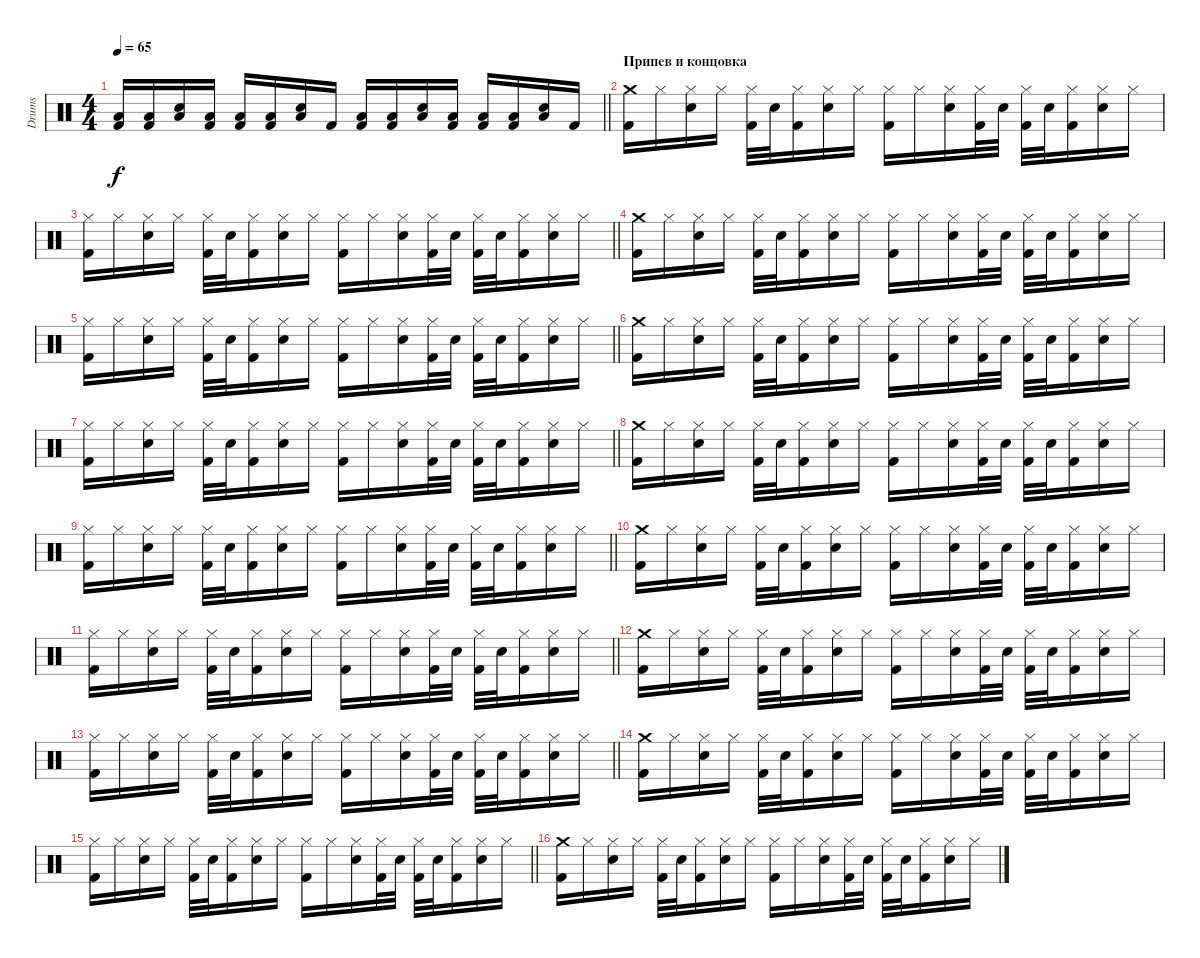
\track ("Drums" "Drums") {instrument percussion}
\staff {score}
\articulation defaults
\ts (4 4)
\tempo 65
\clef neutral
\barLineRight lightlight
\ks c
("Low Tom (hit)" "Kick (hit) 2").16{dy f} ("Low Tom (hit)" "Kick (hit) 2").16 ("Low Tom (hit)" "Snare (hit) 2").16 ("Low Tom (hit)" "Kick (hit) 2").16 ("Low Tom (hit)" "Kick (hit) 2").16 ("Low Tom (hit)" "Kick (hit) 2").16 ("Low Tom (hit)" "Snare (hit) 2").16 "Kick (hit) 2".16 ("Low Tom (hit)" "Kick (hit) 2").16 ("Low Tom (hit)" "Kick (hit) 2").16 ("Low Tom (hit)" "Snare (hit) 2").16 ("Low Tom (hit)" "Kick (hit) 2").16 ("Low Tom (hit)" "Kick (hit) 2").16 ("Low Tom (hit)" "Kick (hit) 2").16 ("Low Tom (hit)" "Snare (hit) 2").16 "Kick (hit) 2".16 |
\section ("" "Припев и концовка")
("Crash medium (hit)" "Kick (hit) 2").16 "Hi-Hat (closed)".16 ("Hi-Hat (closed)" "Snare (hit) 2").16 "Hi-Hat (closed)".16 ("Hi-Hat (closed)" "Kick (hit) 2").32 "Snare (hit) 2".32 ("Hi-Hat (closed)" "Kick (hit) 2").16 ("Hi-Hat (closed)" "Snare (hit) 2").16 "Hi-Hat (closed)".16 ("Hi-Hat (closed)" "Kick (hit) 2").16 "Hi-Hat (closed)".16 ("Hi-Hat (closed)" "Snare (hit) 2").16 ("Hi-Hat (closed)" "Kick (hit) 2").32 "Snare (hit) 2".32 ("Hi-Hat (closed)" "Kick (hit) 2").32 "Snare (hit) 2".32 ("Hi-Hat (closed)" "Kick (hit) 2").16 ("Hi-Hat (closed)" "Snare (hit) 2").16 "Hi-Hat (closed)".16 |
\barLineRight lightlight
("Hi-Hat (closed)" "Kick (hit) 2").16 "Hi-Hat (closed)".16 ("Hi-Hat (closed)" "Snare (hit) 2").16 "Hi-Hat (closed)".16 ("Hi-Hat (closed)" "Kick (hit) 2").32 "Snare (hit) 2".32 ("Hi-Hat (closed)" "Kick (hit) 2").16 ("Hi-Hat (closed)" "Snare (hit) 2").16 "Hi-Hat (closed)".16 ("Hi-Hat (closed)" "Kick (hit) 2").16 "Hi-Hat (closed)".16 ("Hi-Hat (closed)" "Snare (hit) 2").16 ("Hi-Hat (closed)" "Kick (hit) 2").32 "Snare (hit) 2".32 ("Hi-Hat (closed)" "Kick (hit) 2").32 "Snare (hit) 2".32 ("Hi-Hat (closed)" "Kick (hit) 2").16 ("Hi-Hat (closed)" "Snare (hit) 2").16 "Hi-Hat (closed)".16 |
("Crash medium (hit)" "Kick (hit) 2").16 "Hi-Hat (closed)".16 ("Hi-Hat (closed)" "Snare (hit) 2").16 "Hi-Hat (closed)".16 ("Hi-Hat (closed)" "Kick (hit) 2").32 "Snare (hit) 2".32 ("Hi-Hat (closed)" "Kick (hit) 2").16 ("Hi-Hat (closed)" "Snare (hit) 2").16 "Hi-Hat (closed)".16 ("Hi-Hat (closed)" "Kick (hit) 2").16 "Hi-Hat (closed)".16 ("Hi-Hat (closed)" "Snare (hit) 2").16 ("Hi-Hat (closed)" "Kick (hit) 2").32 "Snare (hit) 2".32 ("Hi-Hat (closed)" "Kick (hit) 2").32 "Snare (hit) 2".32 ("Hi-Hat (closed)" "Kick (hit) 2").16 ("Hi-Hat (closed)" "Snare (hit) 2").16 "Hi-Hat (closed)".16 |
\barLineRight lightlight
("Hi-Hat (closed)" "Kick (hit) 2").16 "Hi-Hat (closed)".16 ("Hi-Hat (closed)" "Snare (hit) 2").16 "Hi-Hat (closed)".16 ("Hi-Hat (closed)" "Kick (hit) 2").32 "Snare (hit) 2".32 ("Hi-Hat (closed)" "Kick (hit) 2").16 ("Hi-Hat (closed)" "Snare (hit) 2").16 "Hi-Hat (closed)".16 ("Hi-Hat (closed)" "Kick (hit) 2").16 "Hi-Hat (closed)".16 ("Hi-Hat (closed)" "Snare (hit) 2").16 ("Hi-Hat (closed)" "Kick (hit) 2").32 "Snare (hit) 2".32 ("Hi-Hat (closed)" "Kick (hit) 2").32 "Snare (hit) 2".32 ("Hi-Hat (closed)" "Kick (hit) 2").16 ("Hi-Hat (closed)" "Snare (hit) 2").16 "Hi-Hat (closed)".16 |
("Crash medium (hit)" "Kick (hit) 2").16 "Hi-Hat (closed)".16 ("Hi-Hat (closed)" "Snare (hit) 2").16 "Hi-Hat (closed)".16 ("Hi-Hat (closed)" "Kick (hit) 2").32 "Snare (hit) 2".32 ("Hi-Hat (closed)" "Kick (hit) 2").16 ("Hi-Hat (closed)" "Snare (hit) 2").16 "Hi-Hat (closed)".16 ("Hi-Hat (closed)" "Kick (hit) 2").16 "Hi-Hat (closed)".16 ("Hi-Hat (closed)" "Snare (hit) 2").16 ("Hi-Hat (closed)" "Kick (hit) 2").32 "Snare (hit) 2".32 ("Hi-Hat (closed)" "Kick (hit) 2").32 "Snare (hit) 2".32 ("Hi-Hat (closed)" "Kick (hit) 2").16 ("Hi-Hat (closed)" "Snare (hit) 2").16 "Hi-Hat (closed)".16 |
\barLineRight lightlight
("Hi-Hat (closed)" "Kick (hit) 2").16 "Hi-Hat (closed)".16 ("Hi-Hat (closed)" "Snare (hit) 2").16 "Hi-Hat (closed)".16 ("Hi-Hat (closed)" "Kick (hit) 2").32 "Snare (hit) 2".32 ("Hi-Hat (closed)" "Kick (hit) 2").16 ("Hi-Hat (closed)" "Snare (hit) 2").16 "Hi-Hat (closed)".16 ("Hi-Hat (closed)" "Kick (hit) 2").16 "Hi-Hat (closed)".16 ("Hi-Hat (closed)" "Snare (hit) 2").16 ("Hi-Hat (closed)" "Kick (hit) 2").32 "Snare (hit) 2".32 ("Hi-Hat (closed)" "Kick (hit) 2").32 "Snare (hit) 2".32 ("Hi-Hat (closed)" "Kick (hit) 2").16 ("Hi-Hat (closed)" "Snare (hit) 2").16 "Hi-Hat (closed)".16 |
("Crash medium (hit)" "Kick (hit) 2").16 "Hi-Hat (closed)".16 ("Hi-Hat (closed)" "Snare (hit) 2").16 "Hi-Hat (closed)".16 ("Hi-Hat (closed)" "Kick (hit) 2").32 "Snare (hit) 2".32 ("Hi-Hat (closed)" "Kick (hit) 2").16 ("Hi-Hat (closed)" "Snare (hit) 2").16 "Hi-Hat (closed)".16 ("Hi-Hat (closed)" "Kick (hit) 2").16 "Hi-Hat (closed)".16 ("Hi-Hat (closed)" "Snare (hit) 2").16 ("Hi-Hat (closed)" "Kick (hit) 2").32 "Snare (hit) 2".32 ("Hi-Hat (closed)" "Kick (hit) 2").32 "Snare (hit) 2".32 ("Hi-Hat (closed)" "Kick (hit) 2").16 ("Hi-Hat (closed)" "Snare (hit) 2").16 "Hi-Hat (closed)".16 |
\barLineRight lightlight
("Hi-Hat (closed)" "Kick (hit) 2").16 "Hi-Hat (closed)".16 ("Hi-Hat (closed)" "Snare (hit) 2").16 "Hi-Hat (closed)".16 ("Hi-Hat (closed)" "Kick (hit) 2").32 "Snare (hit) 2".32 ("Hi-Hat (closed)" "Kick (hit) 2").16 ("Hi-Hat (closed)" "Snare (hit) 2").16 "Hi-Hat (closed)".16 ("Hi-Hat (closed)" "Kick (hit) 2").16 "Hi-Hat (closed)".16 ("Hi-Hat (closed)" "Snare (hit) 2").16 ("Hi-Hat (closed)" "Kick (hit) 2").32 "Snare (hit) 2".32 ("Hi-Hat (closed)" "Kick (hit) 2").32 "Snare (hit) 2".32 ("Hi-Hat (closed)" "Kick (hit) 2").16 ("Hi-Hat (closed)" "Snare (hit) 2").16 "Hi-Hat (closed)".16 |
("Crash medium (hit)" "Kick (hit) 2").16 "Hi-Hat (closed)".16 ("Hi-Hat (closed)" "Snare (hit) 2").16 "Hi-Hat (closed)".16 ("Hi-Hat (closed)" "Kick (hit) 2").32 "Snare (hit) 2".32 ("Hi-Hat (closed)" "Kick (hit) 2").16 ("Hi-Hat (closed)" "Snare (hit) 2").16 "Hi-Hat (closed)".16 ("Hi-Hat (closed)" "Kick (hit) 2").16 "Hi-Hat (closed)".16 ("Hi-Hat (closed)" "Snare (hit) 2").16 ("Hi-Hat (closed)" "Kick (hit) 2").32 "Snare (hit) 2".32 ("Hi-Hat (closed)" "Kick (hit) 2").32 "Snare (hit) 2".32 ("Hi-Hat (closed)" "Kick (hit) 2").16 ("Hi-Hat (closed)" "Snare (hit) 2").16 "Hi-Hat (closed)".16 |
\barLineRight lightlight
("Hi-Hat (closed)" "Kick (hit) 2").16 "Hi-Hat (closed)".16 ("Hi-Hat (closed)" "Snare (hit) 2").16 "Hi-Hat (closed)".16 ("Hi-Hat (closed)" "Kick (hit) 2").32 "Snare (hit) 2".32 ("Hi-Hat (closed)" "Kick (hit) 2").16 ("Hi-Hat (closed)" "Snare (hit) 2").16 "Hi-Hat (closed)".16 ("Hi-Hat (closed)" "Kick (hit) 2").16 "Hi-Hat (closed)".16 ("Hi-Hat (closed)" "Snare (hit) 2").16 ("Hi-Hat (closed)" "Kick (hit) 2").32 "Snare (hit) 2".32 ("Hi-Hat (closed)" "Kick (hit) 2").32 "Snare (hit) 2".32 ("Hi-Hat (closed)" "Kick (hit) 2").16 ("Hi-Hat (closed)" "Snare (hit) 2").16 "Hi-Hat (closed)".16 |
("Crash medium (hit)" "Kick (hit) 2").16 "Hi-Hat (closed)".16 ("Hi-Hat (closed)" "Snare (hit) 2").16 "Hi-Hat (closed)".16 ("Hi-Hat (closed)" "Kick (hit) 2").32 "Snare (hit) 2".32 ("Hi-Hat (closed)" "Kick (hit) 2").16 ("Hi-Hat (closed)" "Snare (hit) 2").16 "Hi-Hat (closed)".16 ("Hi-Hat (closed)" "Kick (hit) 2").16 "Hi-Hat (closed)".16 ("Hi-Hat (closed)" "Snare (hit) 2").16 ("Hi-Hat (closed)" "Kick (hit) 2").32 "Snare (hit) 2".32 ("Hi-Hat (closed)" "Kick (hit) 2").32 "Snare (hit) 2".32 ("Hi-Hat (closed)" "Kick (hit) 2").16 ("Hi-Hat (closed)" "Snare (hit) 2").16 "Hi-Hat (closed)".16 |
\barLineRight lightlight
("Hi-Hat (closed)" "Kick (hit) 2").16 "Hi-Hat (closed)".16 ("Hi-Hat (closed)" "Snare (hit) 2").16 "Hi-Hat (closed)".16 ("Hi-Hat (closed)" "Kick (hit) 2").32 "Snare (hit) 2".32 ("Hi-Hat (closed)" "Kick (hit) 2").16 ("Hi-Hat (closed)" "Snare (hit) 2").16 "Hi-Hat (closed)".16 ("Hi-Hat (closed)" "Kick (hit) 2").16 "Hi-Hat (closed)".16 ("Hi-Hat (closed)" "Snare (hit) 2").16 ("Hi-Hat (closed)" "Kick (hit) 2").32 "Snare (hit) 2".32 ("Hi-Hat (closed)" "Kick (hit) 2").32 "Snare (hit) 2".32 ("Hi-Hat (closed)" "Kick (hit) 2").16 ("Hi-Hat (closed)" "Snare (hit) 2").16 "Hi-Hat (closed)".16 |
("Crash medium (hit)" "Kick (hit) 2").16 "Hi-Hat (closed)".16 ("Hi-Hat (closed)" "Snare (hit) 2").16 "Hi-Hat (closed)".16 ("Hi-Hat (closed)" "Kick (hit) 2").32 "Snare (hit) 2".32 ("Hi-Hat (closed)" "Kick (hit) 2").16 ("Hi-Hat (closed)" "Snare (hit) 2").16 "Hi-Hat (closed)".16 ("Hi-Hat (closed)" "Kick (hit) 2").16 "Hi-Hat (closed)".16 ("Hi-Hat (closed)" "Snare (hit) 2").16 ("Hi-Hat (closed)" "Kick (hit) 2").32 "Snare (hit) 2".32 ("Hi-Hat (closed)" "Kick (hit) 2").32 "Snare (hit) 2".32 ("Hi-Hat (closed)" "Kick (hit) 2").16 ("Hi-Hat (closed)" "Snare (hit) 2").16 "Hi-Hat (closed)".16 |
\barLineRight lightlight
("Hi-Hat (closed)" "Kick (hit) 2").16 "Hi-Hat (closed)".16 ("Hi-Hat (closed)" "Snare (hit) 2").16 "Hi-Hat (closed)".16 ("Hi-Hat (closed)" "Kick (hit) 2").32 "Snare (hit) 2".32 ("Hi-Hat (closed)" "Kick (hit) 2").16 ("Hi-Hat (closed)" "Snare (hit) 2").16 "Hi-Hat (closed)".16 ("Hi-Hat (closed)" "Kick (hit) 2").16 "Hi-Hat (closed)".16 ("Hi-Hat (closed)" "Snare (hit) 2").16 ("Hi-Hat (closed)" "Kick (hit) 2").32 "Snare (hit) 2".32 ("Hi-Hat (closed)" "Kick (hit) 2").32 "Snare (hit) 2".32 ("Hi-Hat (closed)" "Kick (hit) 2").16 ("Hi-Hat (closed)" "Snare (hit) 2").16 "Hi-Hat (closed)".16 |
("Crash medium (hit)" "Kick (hit) 2").16 "Hi-Hat (closed)".16 ("Hi-Hat (closed)" "Snare (hit) 2").16 "Hi-Hat (closed)".16 ("Hi-Hat (closed)" "Kick (hit) 2").32 "Snare (hit) 2".32 ("Hi-Hat (closed)" "Kick (hit) 2").16 ("Hi-Hat (closed)" "Snare (hit) 2").16 "Hi-Hat (closed)".16 ("Hi-Hat (closed)" "Kick (hit) 2").16 "Hi-Hat (closed)".16 ("Hi-Hat (closed)" "Snare (hit) 2").16 ("Hi-Hat (closed)" "Kick (hit) 2").32 "Snare (hit) 2".32 ("Hi-Hat (closed)" "Kick (hit) 2").32 "Snare (hit) 2".32 ("Hi-Hat (closed)" "Kick (hit) 2").16 ("Hi-Hat (closed)" "Snare (hit) 2").16 "Hi-Hat (closed)".16
